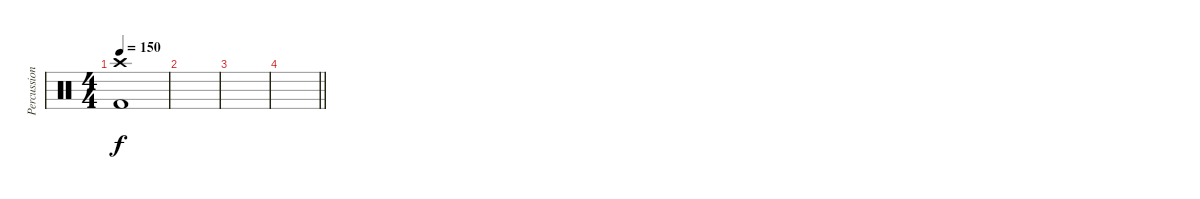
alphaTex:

\track ("Percussion" "Percussion") {instrument percussion}
\staff {score}
\articulation defaults
\ts (4 4)
\tempo 150
\clef neutral
\ks c
("Crash high (hit)" "Kick (hit) 2").1{dy f} |
|
|
\barLineRight lightlight
